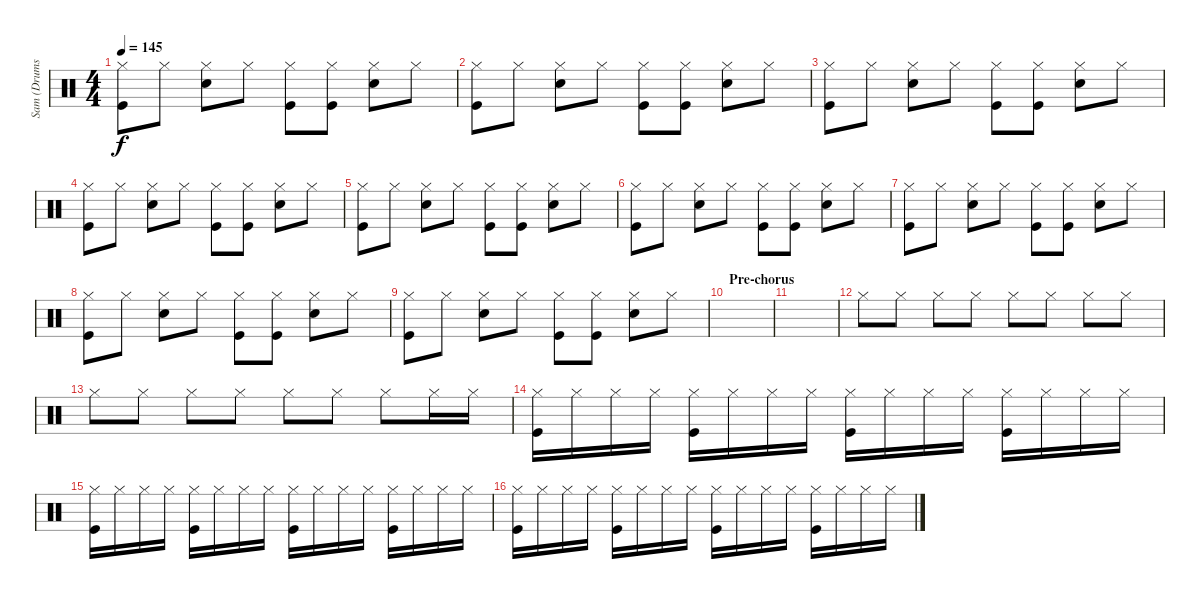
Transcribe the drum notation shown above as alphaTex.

\track ("Sam (Drums)" "Sam (Drums") {instrument percussion}
\staff {score}
\articulation defaults
\ts (4 4)
\tempo 145
\clef neutral
\ks c
("Hi-Hat (closed)" "Kick (hit)").8{dy f} "Hi-Hat (closed)".8 ("Hi-Hat (closed)" "Snare (hit) 2").8 "Hi-Hat (closed)".8 ("Hi-Hat (closed)" "Kick (hit)").8 ("Hi-Hat (closed)" "Kick (hit)").8 ("Hi-Hat (closed)" "Snare (hit) 2").8 "Hi-Hat (closed)".8 |
("Hi-Hat (closed)" "Kick (hit)").8 "Hi-Hat (closed)".8 ("Hi-Hat (closed)" "Snare (hit) 2").8 "Hi-Hat (closed)".8 ("Hi-Hat (closed)" "Kick (hit)").8 ("Hi-Hat (closed)" "Kick (hit)").8 ("Hi-Hat (closed)" "Snare (hit) 2").8 "Hi-Hat (closed)".8 |
("Hi-Hat (closed)" "Kick (hit)").8 "Hi-Hat (closed)".8 ("Hi-Hat (closed)" "Snare (hit) 2").8 "Hi-Hat (closed)".8 ("Hi-Hat (closed)" "Kick (hit)").8 ("Hi-Hat (closed)" "Kick (hit)").8 ("Hi-Hat (closed)" "Snare (hit) 2").8 "Hi-Hat (closed)".8 |
("Hi-Hat (closed)" "Kick (hit)").8 "Hi-Hat (closed)".8 ("Hi-Hat (closed)" "Snare (hit) 2").8 "Hi-Hat (closed)".8 ("Hi-Hat (closed)" "Kick (hit)").8 ("Hi-Hat (closed)" "Kick (hit)").8 ("Hi-Hat (closed)" "Snare (hit) 2").8 "Hi-Hat (closed)".8 |
("Hi-Hat (closed)" "Kick (hit)").8 "Hi-Hat (closed)".8 ("Hi-Hat (closed)" "Snare (hit) 2").8 "Hi-Hat (closed)".8 ("Hi-Hat (closed)" "Kick (hit)").8 ("Hi-Hat (closed)" "Kick (hit)").8 ("Hi-Hat (closed)" "Snare (hit) 2").8 "Hi-Hat (closed)".8 |
("Hi-Hat (closed)" "Kick (hit)").8 "Hi-Hat (closed)".8 ("Hi-Hat (closed)" "Snare (hit) 2").8 "Hi-Hat (closed)".8 ("Hi-Hat (closed)" "Kick (hit)").8 ("Hi-Hat (closed)" "Kick (hit)").8 ("Hi-Hat (closed)" "Snare (hit) 2").8 "Hi-Hat (closed)".8 |
("Hi-Hat (closed)" "Kick (hit)").8 "Hi-Hat (closed)".8 ("Hi-Hat (closed)" "Snare (hit) 2").8 "Hi-Hat (closed)".8 ("Hi-Hat (closed)" "Kick (hit)").8 ("Hi-Hat (closed)" "Kick (hit)").8 ("Hi-Hat (closed)" "Snare (hit) 2").8 "Hi-Hat (closed)".8 |
("Hi-Hat (closed)" "Kick (hit)").8 "Hi-Hat (closed)".8 ("Hi-Hat (closed)" "Snare (hit) 2").8 "Hi-Hat (closed)".8 ("Hi-Hat (closed)" "Kick (hit)").8 ("Hi-Hat (closed)" "Kick (hit)").8 ("Hi-Hat (closed)" "Snare (hit) 2").8 "Hi-Hat (closed)".8 |
("Hi-Hat (closed)" "Kick (hit)").8 "Hi-Hat (closed)".8 ("Hi-Hat (closed)" "Snare (hit) 2").8 "Hi-Hat (closed)".8 ("Hi-Hat (closed)" "Kick (hit)").8 ("Hi-Hat (closed)" "Kick (hit)").8 ("Hi-Hat (closed)" "Snare (hit) 2").8 "Hi-Hat (closed)".8 |
\section ("" "Pre-chorus")
|
|
"Hi-Hat (closed)".8 "Hi-Hat (closed)".8 "Hi-Hat (closed)".8 "Hi-Hat (closed)".8 "Hi-Hat (closed)".8 "Hi-Hat (closed)".8 "Hi-Hat (closed)".8 "Hi-Hat (closed)".8 |
"Hi-Hat (closed)".8 "Hi-Hat (closed)".8 "Hi-Hat (closed)".8 "Hi-Hat (closed)".8 "Hi-Hat (closed)".8 "Hi-Hat (closed)".8 "Hi-Hat (closed)".8 "Hi-Hat (closed)".16 "Hi-Hat (closed)".16 |
("Hi-Hat (closed)" "Kick (hit)").16 "Hi-Hat (closed)".16 "Hi-Hat (closed)".16 "Hi-Hat (closed)".16 ("Hi-Hat (closed)" "Kick (hit)").16 "Hi-Hat (closed)".16 "Hi-Hat (closed)".16 "Hi-Hat (closed)".16 ("Hi-Hat (closed)" "Kick (hit)").16 "Hi-Hat (closed)".16 "Hi-Hat (closed)".16 "Hi-Hat (closed)".16 ("Hi-Hat (closed)" "Kick (hit)").16 "Hi-Hat (closed)".16 "Hi-Hat (closed)".16 "Hi-Hat (closed)".16 |
("Hi-Hat (closed)" "Kick (hit)").16 "Hi-Hat (closed)".16 "Hi-Hat (closed)".16 "Hi-Hat (closed)".16 ("Hi-Hat (closed)" "Kick (hit)").16 "Hi-Hat (closed)".16 "Hi-Hat (closed)".16 "Hi-Hat (closed)".16 ("Hi-Hat (closed)" "Kick (hit)").16 "Hi-Hat (closed)".16 "Hi-Hat (closed)".16 "Hi-Hat (closed)".16 ("Hi-Hat (closed)" "Kick (hit)").16 "Hi-Hat (closed)".16 "Hi-Hat (closed)".16 "Hi-Hat (closed)".16 |
("Hi-Hat (closed)" "Kick (hit)").16 "Hi-Hat (closed)".16 "Hi-Hat (closed)".16 "Hi-Hat (closed)".16 ("Hi-Hat (closed)" "Kick (hit)").16 "Hi-Hat (closed)".16 "Hi-Hat (closed)".16 "Hi-Hat (closed)".16 ("Hi-Hat (closed)" "Kick (hit)").16 "Hi-Hat (closed)".16 "Hi-Hat (closed)".16 "Hi-Hat (closed)".16 ("Hi-Hat (closed)" "Kick (hit)").16 "Hi-Hat (closed)".16 "Hi-Hat (closed)".16 "Hi-Hat (closed)".16
